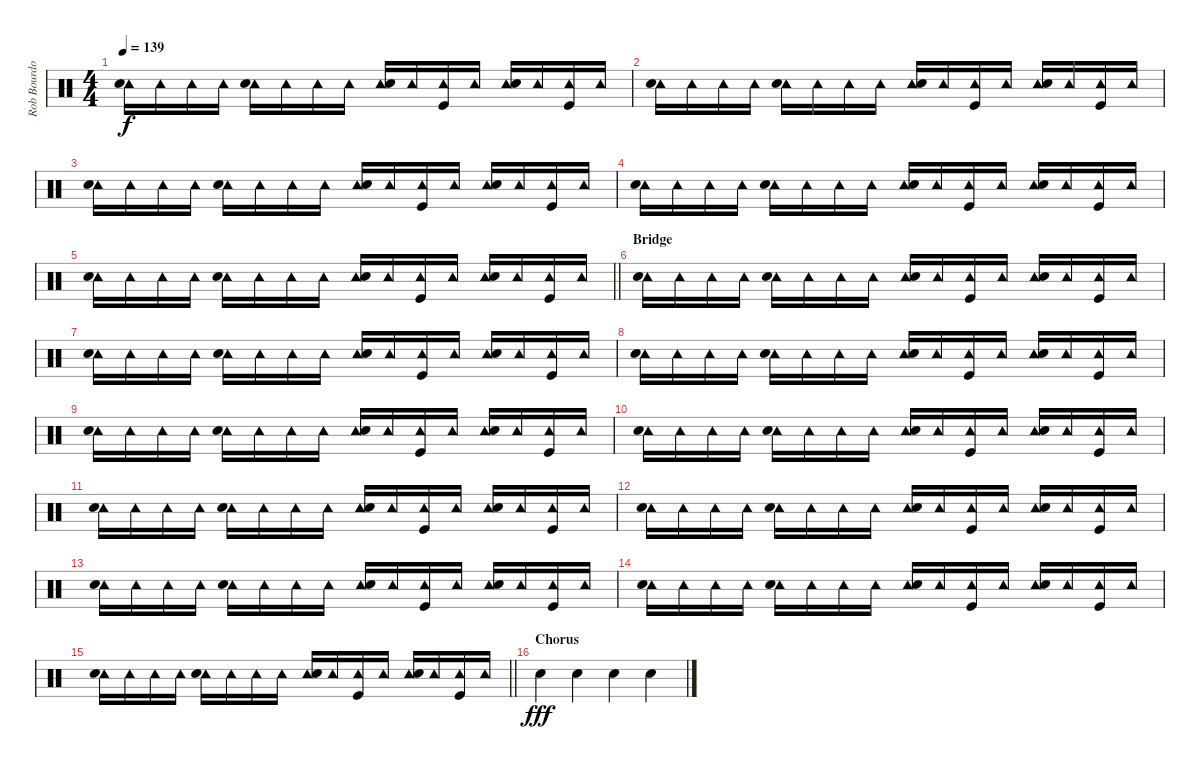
\track ("Rob Bourdon [Drums] / Clap from Audience" "Rob Bourdo") {instrument percussion}
\staff {score}
\articulation defaults
\ts (4 4)
\tempo 139
\clef neutral
\ks c
("Tambourine (hit)" "Snare (hit) 2").16{dy f} "Tambourine (hit)".16 "Tambourine (hit)".16 "Tambourine (hit)".16 ("Tambourine (hit)" "Snare (hit) 2").16 "Tambourine (hit)".16 "Tambourine (hit)".16 "Tambourine (hit)".16 ("Tambourine (hit)" "Snare (hit) 2").16 "Tambourine (hit)".16 ("Tambourine (hit)" "Kick (hit)").16 "Tambourine (hit)".16 ("Tambourine (hit)" "Snare (hit) 2").16 "Tambourine (hit)".16 ("Tambourine (hit)" "Kick (hit)").16 "Tambourine (hit)".16 |
("Tambourine (hit)" "Snare (hit) 2").16 "Tambourine (hit)".16 "Tambourine (hit)".16 "Tambourine (hit)".16 ("Tambourine (hit)" "Snare (hit) 2").16 "Tambourine (hit)".16 "Tambourine (hit)".16 "Tambourine (hit)".16 ("Tambourine (hit)" "Snare (hit) 2").16 "Tambourine (hit)".16 ("Tambourine (hit)" "Kick (hit)").16 "Tambourine (hit)".16 ("Tambourine (hit)" "Snare (hit) 2").16 "Tambourine (hit)".16 ("Tambourine (hit)" "Kick (hit)").16 "Tambourine (hit)".16 |
("Tambourine (hit)" "Snare (hit) 2").16 "Tambourine (hit)".16 "Tambourine (hit)".16 "Tambourine (hit)".16 ("Tambourine (hit)" "Snare (hit) 2").16 "Tambourine (hit)".16 "Tambourine (hit)".16 "Tambourine (hit)".16 ("Tambourine (hit)" "Snare (hit) 2").16 "Tambourine (hit)".16 ("Tambourine (hit)" "Kick (hit)").16 "Tambourine (hit)".16 ("Tambourine (hit)" "Snare (hit) 2").16 "Tambourine (hit)".16 ("Tambourine (hit)" "Kick (hit)").16 "Tambourine (hit)".16 |
("Tambourine (hit)" "Snare (hit) 2").16 "Tambourine (hit)".16 "Tambourine (hit)".16 "Tambourine (hit)".16 ("Tambourine (hit)" "Snare (hit) 2").16 "Tambourine (hit)".16 "Tambourine (hit)".16 "Tambourine (hit)".16 ("Tambourine (hit)" "Snare (hit) 2").16 "Tambourine (hit)".16 ("Tambourine (hit)" "Kick (hit)").16 "Tambourine (hit)".16 ("Tambourine (hit)" "Snare (hit) 2").16 "Tambourine (hit)".16 ("Tambourine (hit)" "Kick (hit)").16 "Tambourine (hit)".16 |
\barLineRight lightlight
("Tambourine (hit)" "Snare (hit) 2").16 "Tambourine (hit)".16 "Tambourine (hit)".16 "Tambourine (hit)".16 ("Tambourine (hit)" "Snare (hit) 2").16 "Tambourine (hit)".16 "Tambourine (hit)".16 "Tambourine (hit)".16 ("Tambourine (hit)" "Snare (hit) 2").16 "Tambourine (hit)".16 ("Tambourine (hit)" "Kick (hit)").16 "Tambourine (hit)".16 ("Tambourine (hit)" "Snare (hit) 2").16 "Tambourine (hit)".16 ("Tambourine (hit)" "Kick (hit)").16 "Tambourine (hit)".16 |
\section ("" "Bridge")
("Tambourine (hit)" "Snare (hit) 2").16 "Tambourine (hit)".16 "Tambourine (hit)".16 "Tambourine (hit)".16 ("Tambourine (hit)" "Snare (hit) 2").16 "Tambourine (hit)".16 "Tambourine (hit)".16 "Tambourine (hit)".16 ("Tambourine (hit)" "Snare (hit) 2").16 "Tambourine (hit)".16 ("Tambourine (hit)" "Kick (hit)").16 "Tambourine (hit)".16 ("Tambourine (hit)" "Snare (hit) 2").16 "Tambourine (hit)".16 ("Tambourine (hit)" "Kick (hit)").16 "Tambourine (hit)".16 |
("Tambourine (hit)" "Snare (hit) 2").16 "Tambourine (hit)".16 "Tambourine (hit)".16 "Tambourine (hit)".16 ("Tambourine (hit)" "Snare (hit) 2").16 "Tambourine (hit)".16 "Tambourine (hit)".16 "Tambourine (hit)".16 ("Tambourine (hit)" "Snare (hit) 2").16 "Tambourine (hit)".16 ("Tambourine (hit)" "Kick (hit)").16 "Tambourine (hit)".16 ("Tambourine (hit)" "Snare (hit) 2").16 "Tambourine (hit)".16 ("Tambourine (hit)" "Kick (hit)").16 "Tambourine (hit)".16 |
("Tambourine (hit)" "Snare (hit) 2").16 "Tambourine (hit)".16 "Tambourine (hit)".16 "Tambourine (hit)".16 ("Tambourine (hit)" "Snare (hit) 2").16 "Tambourine (hit)".16 "Tambourine (hit)".16 "Tambourine (hit)".16 ("Tambourine (hit)" "Snare (hit) 2").16 "Tambourine (hit)".16 ("Tambourine (hit)" "Kick (hit)").16 "Tambourine (hit)".16 ("Tambourine (hit)" "Snare (hit) 2").16 "Tambourine (hit)".16 ("Tambourine (hit)" "Kick (hit)").16 "Tambourine (hit)".16 |
("Tambourine (hit)" "Snare (hit) 2").16 "Tambourine (hit)".16 "Tambourine (hit)".16 "Tambourine (hit)".16 ("Tambourine (hit)" "Snare (hit) 2").16 "Tambourine (hit)".16 "Tambourine (hit)".16 "Tambourine (hit)".16 ("Tambourine (hit)" "Snare (hit) 2").16 "Tambourine (hit)".16 ("Tambourine (hit)" "Kick (hit)").16 "Tambourine (hit)".16 ("Tambourine (hit)" "Snare (hit) 2").16 "Tambourine (hit)".16 ("Tambourine (hit)" "Kick (hit)").16 "Tambourine (hit)".16 |
("Tambourine (hit)" "Snare (hit) 2").16 "Tambourine (hit)".16 "Tambourine (hit)".16 "Tambourine (hit)".16 ("Tambourine (hit)" "Snare (hit) 2").16 "Tambourine (hit)".16 "Tambourine (hit)".16 "Tambourine (hit)".16 ("Tambourine (hit)" "Snare (hit) 2").16 "Tambourine (hit)".16 ("Tambourine (hit)" "Kick (hit)").16 "Tambourine (hit)".16 ("Tambourine (hit)" "Snare (hit) 2").16 "Tambourine (hit)".16 ("Tambourine (hit)" "Kick (hit)").16 "Tambourine (hit)".16 |
("Tambourine (hit)" "Snare (hit) 2").16 "Tambourine (hit)".16 "Tambourine (hit)".16 "Tambourine (hit)".16 ("Tambourine (hit)" "Snare (hit) 2").16 "Tambourine (hit)".16 "Tambourine (hit)".16 "Tambourine (hit)".16 ("Tambourine (hit)" "Snare (hit) 2").16 "Tambourine (hit)".16 ("Tambourine (hit)" "Kick (hit)").16 "Tambourine (hit)".16 ("Tambourine (hit)" "Snare (hit) 2").16 "Tambourine (hit)".16 ("Tambourine (hit)" "Kick (hit)").16 "Tambourine (hit)".16 |
("Tambourine (hit)" "Snare (hit) 2").16 "Tambourine (hit)".16 "Tambourine (hit)".16 "Tambourine (hit)".16 ("Tambourine (hit)" "Snare (hit) 2").16 "Tambourine (hit)".16 "Tambourine (hit)".16 "Tambourine (hit)".16 ("Tambourine (hit)" "Snare (hit) 2").16 "Tambourine (hit)".16 ("Tambourine (hit)" "Kick (hit)").16 "Tambourine (hit)".16 ("Tambourine (hit)" "Snare (hit) 2").16 "Tambourine (hit)".16 ("Tambourine (hit)" "Kick (hit)").16 "Tambourine (hit)".16 |
("Tambourine (hit)" "Snare (hit) 2").16 "Tambourine (hit)".16 "Tambourine (hit)".16 "Tambourine (hit)".16 ("Tambourine (hit)" "Snare (hit) 2").16 "Tambourine (hit)".16 "Tambourine (hit)".16 "Tambourine (hit)".16 ("Tambourine (hit)" "Snare (hit) 2").16 "Tambourine (hit)".16 ("Tambourine (hit)" "Kick (hit)").16 "Tambourine (hit)".16 ("Tambourine (hit)" "Snare (hit) 2").16 "Tambourine (hit)".16 ("Tambourine (hit)" "Kick (hit)").16 "Tambourine (hit)".16 |
("Tambourine (hit)" "Snare (hit) 2").16 "Tambourine (hit)".16 "Tambourine (hit)".16 "Tambourine (hit)".16 ("Tambourine (hit)" "Snare (hit) 2").16 "Tambourine (hit)".16 "Tambourine (hit)".16 "Tambourine (hit)".16 ("Tambourine (hit)" "Snare (hit) 2").16 "Tambourine (hit)".16 ("Tambourine (hit)" "Kick (hit)").16 "Tambourine (hit)".16 ("Tambourine (hit)" "Snare (hit) 2").16 "Tambourine (hit)".16 ("Tambourine (hit)" "Kick (hit)").16 "Tambourine (hit)".16 |
\barLineRight lightlight
("Tambourine (hit)" "Snare (hit) 2").16 "Tambourine (hit)".16 "Tambourine (hit)".16 "Tambourine (hit)".16 ("Tambourine (hit)" "Snare (hit) 2").16 "Tambourine (hit)".16 "Tambourine (hit)".16 "Tambourine (hit)".16 ("Tambourine (hit)" "Snare (hit) 2").16 "Tambourine (hit)".16 ("Tambourine (hit)" "Kick (hit)").16 "Tambourine (hit)".16 ("Tambourine (hit)" "Snare (hit) 2").16 "Tambourine (hit)".16 ("Tambourine (hit)" "Kick (hit)").16 "Tambourine (hit)".16 |
\section ("" "Chorus")
"Hand Clap (hit)".4{dy fff} "Hand Clap (hit)".4 "Hand Clap (hit)".4 "Hand Clap (hit)".4
